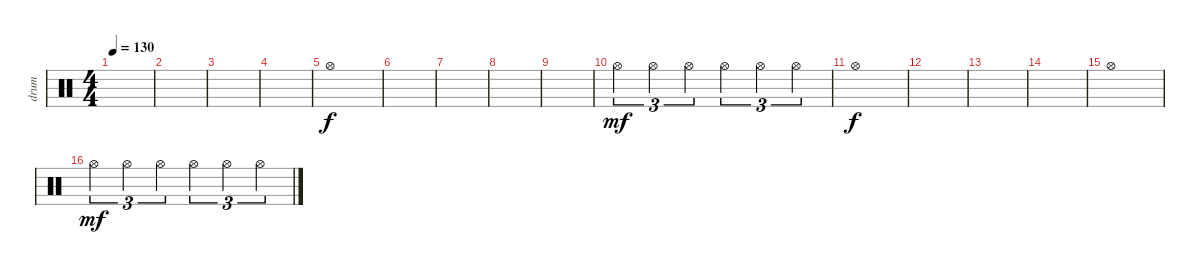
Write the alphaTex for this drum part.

\track ("drum" "drum") {instrument percussion}
\staff {score}
\articulation defaults
\ts (4 4)
\tempo 130
\clef neutral
\ks c
|
|
|
|
"Hi-Hat (open)".1 |
|
|
|
|
"Hi-Hat (open)".4{tu (3 2) dy mf} "Hi-Hat (open)".4{tu (3 2)} "Hi-Hat (open)".4{tu (3 2)} "Hi-Hat (open)".4{tu (3 2)} "Hi-Hat (open)".4{tu (3 2)} "Hi-Hat (open)".4{tu (3 2)} |
"Hi-Hat (open)".1{dy f} |
|
|
|
"Hi-Hat (open)".1 |
"Hi-Hat (open)".4{tu (3 2) dy mf} "Hi-Hat (open)".4{tu (3 2)} "Hi-Hat (open)".4{tu (3 2)} "Hi-Hat (open)".4{tu (3 2)} "Hi-Hat (open)".4{tu (3 2)} "Hi-Hat (open)".4{tu (3 2)}
